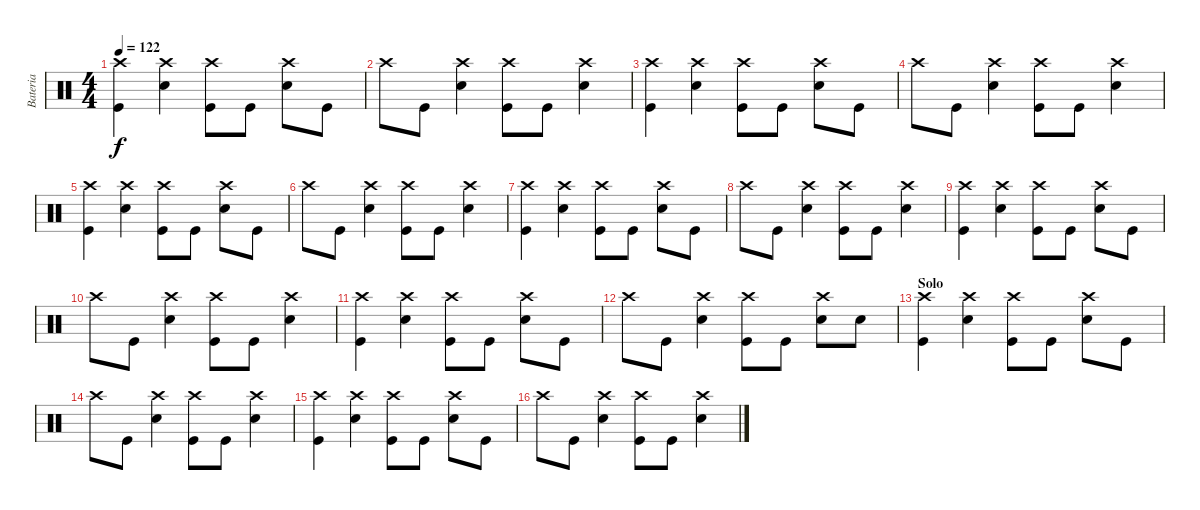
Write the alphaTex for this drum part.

\track ("Bateria" "Bateria") {instrument percussion}
\staff {score}
\articulation defaults
\ts (4 4)
\tempo 122
\clef neutral
\ks c
("Crash high (hit)" "Kick (hit)").4{dy f} ("Crash high (hit)" "Snare (hit) 2").4 ("Crash high (hit)" "Kick (hit)").8 "Kick (hit)".8 ("Crash high (hit)" "Snare (hit) 2").8 "Kick (hit)".8 |
"Crash high (hit)".8 "Kick (hit)".8 ("Crash high (hit)" "Snare (hit) 2").4 ("Crash high (hit)" "Kick (hit)").8 "Kick (hit)".8 ("Crash high (hit)" "Snare (hit) 2").4 |
("Crash high (hit)" "Kick (hit)").4 ("Crash high (hit)" "Snare (hit) 2").4 ("Crash high (hit)" "Kick (hit)").8 "Kick (hit)".8 ("Crash high (hit)" "Snare (hit) 2").8 "Kick (hit)".8 |
"Crash high (hit)".8 "Kick (hit)".8 ("Crash high (hit)" "Snare (hit) 2").4 ("Crash high (hit)" "Kick (hit)").8 "Kick (hit)".8 ("Crash high (hit)" "Snare (hit) 2").4 |
("Crash high (hit)" "Kick (hit)").4 ("Crash high (hit)" "Snare (hit) 2").4 ("Crash high (hit)" "Kick (hit)").8 "Kick (hit)".8 ("Crash high (hit)" "Snare (hit) 2").8 "Kick (hit)".8 |
"Crash high (hit)".8 "Kick (hit)".8 ("Crash high (hit)" "Snare (hit) 2").4 ("Crash high (hit)" "Kick (hit)").8 "Kick (hit)".8 ("Crash high (hit)" "Snare (hit) 2").4 |
("Crash high (hit)" "Kick (hit)").4 ("Crash high (hit)" "Snare (hit) 2").4 ("Crash high (hit)" "Kick (hit)").8 "Kick (hit)".8 ("Crash high (hit)" "Snare (hit) 2").8 "Kick (hit)".8 |
"Crash high (hit)".8 "Kick (hit)".8 ("Crash high (hit)" "Snare (hit) 2").4 ("Crash high (hit)" "Kick (hit)").8 "Kick (hit)".8 ("Crash high (hit)" "Snare (hit) 2").4 |
("Crash high (hit)" "Kick (hit)").4 ("Crash high (hit)" "Snare (hit) 2").4 ("Crash high (hit)" "Kick (hit)").8 "Kick (hit)".8 ("Crash high (hit)" "Snare (hit) 2").8 "Kick (hit)".8 |
"Crash high (hit)".8 "Kick (hit)".8 ("Crash high (hit)" "Snare (hit) 2").4 ("Crash high (hit)" "Kick (hit)").8 "Kick (hit)".8 ("Crash high (hit)" "Snare (hit) 2").4 |
("Crash high (hit)" "Kick (hit)").4 ("Crash high (hit)" "Snare (hit) 2").4 ("Crash high (hit)" "Kick (hit)").8 "Kick (hit)".8 ("Crash high (hit)" "Snare (hit) 2").8 "Kick (hit)".8 |
"Crash high (hit)".8 "Kick (hit)".8 ("Crash high (hit)" "Snare (hit) 2").4 ("Crash high (hit)" "Kick (hit)").8 "Kick (hit)".8 ("Crash high (hit)" "Snare (hit) 2").8 "Snare (hit) 2".8 |
\section ("" "Solo")
("Crash high (hit)" "Kick (hit)").4 ("Crash high (hit)" "Snare (hit) 2").4 ("Crash high (hit)" "Kick (hit)").8 "Kick (hit)".8 ("Crash high (hit)" "Snare (hit) 2").8 "Kick (hit)".8 |
"Crash high (hit)".8 "Kick (hit)".8 ("Crash high (hit)" "Snare (hit) 2").4 ("Crash high (hit)" "Kick (hit)").8 "Kick (hit)".8 ("Crash high (hit)" "Snare (hit) 2").4 |
("Crash high (hit)" "Kick (hit)").4 ("Crash high (hit)" "Snare (hit) 2").4 ("Crash high (hit)" "Kick (hit)").8 "Kick (hit)".8 ("Crash high (hit)" "Snare (hit) 2").8 "Kick (hit)".8 |
"Crash high (hit)".8 "Kick (hit)".8 ("Crash high (hit)" "Snare (hit) 2").4 ("Crash high (hit)" "Kick (hit)").8 "Kick (hit)".8 ("Crash high (hit)" "Snare (hit) 2").4
